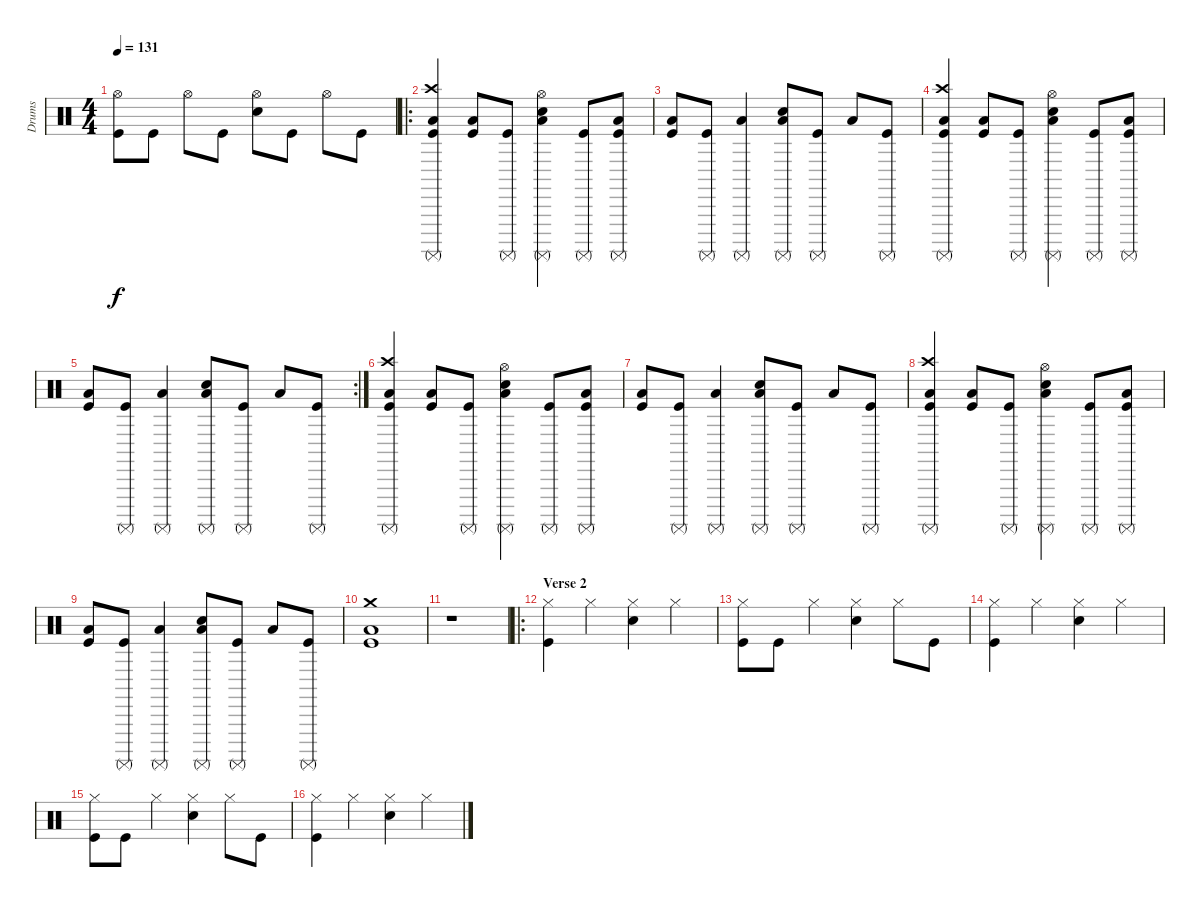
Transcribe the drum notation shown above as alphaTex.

\track ("Drums" "Drums") {instrument percussion}
\staff {score}
\articulation defaults
\ts (4 4)
\tempo 131
\clef neutral
\ks c
("Hi-Hat (open)" "Kick (hit)").8{dy f} "Kick (hit)".8 "Hi-Hat (open)".8 "Kick (hit)".8 ("Hi-Hat (open)" "Snare (hit) 2").8 "Kick (hit)".8 "Hi-Hat (open)".8 "Kick (hit)".8 |
\ro
("Crash high (hit)" "Surdo (mute)" "Low Floor Tom (hit)" "Kick (hit)").4 ("Low Floor Tom (hit)" "Kick (hit)").8 ("Surdo (mute)" "Kick (hit)").8 ("Hi-Hat (open)" "Surdo (mute)" "Low Floor Tom (hit)" "Snare (hit) 2").4 ("Surdo (mute)" "Kick (hit)").8 ("Surdo (mute)" "Low Floor Tom (hit)" "Kick (hit)").8 |
("Low Floor Tom (hit)" "Kick (hit)").8 ("Surdo (mute)" "Kick (hit)").8 ("Surdo (mute)" "Low Floor Tom (hit)").4 ("Surdo (mute)" "Low Floor Tom (hit)" "Snare (hit) 2").8 ("Surdo (mute)" "Kick (hit)").8 "Low Floor Tom (hit)".8 ("Surdo (mute)" "Kick (hit)").8 |
("Crash high (hit)" "Surdo (mute)" "Low Floor Tom (hit)" "Kick (hit)").4 ("Low Floor Tom (hit)" "Kick (hit)").8 ("Surdo (mute)" "Kick (hit)").8 ("Hi-Hat (open)" "Surdo (mute)" "Low Floor Tom (hit)" "Snare (hit) 2").4 ("Surdo (mute)" "Kick (hit)").8 ("Surdo (mute)" "Low Floor Tom (hit)" "Kick (hit)").8 |
\rc 2
("Low Floor Tom (hit)" "Kick (hit)").8 ("Surdo (mute)" "Kick (hit)").8 ("Surdo (mute)" "Low Floor Tom (hit)").4 ("Surdo (mute)" "Low Floor Tom (hit)" "Snare (hit) 2").8 ("Surdo (mute)" "Kick (hit)").8 "Low Floor Tom (hit)".8 ("Surdo (mute)" "Kick (hit)").8 |
("Crash high (hit)" "Surdo (mute)" "Low Floor Tom (hit)" "Kick (hit)").4 ("Low Floor Tom (hit)" "Kick (hit)").8 ("Surdo (mute)" "Kick (hit)").8 ("Hi-Hat (open)" "Surdo (mute)" "Low Floor Tom (hit)" "Snare (hit) 2").4 ("Surdo (mute)" "Kick (hit)").8 ("Surdo (mute)" "Low Floor Tom (hit)" "Kick (hit)").8 |
("Low Floor Tom (hit)" "Kick (hit)").8 ("Surdo (mute)" "Kick (hit)").8 ("Surdo (mute)" "Low Floor Tom (hit)").4 ("Surdo (mute)" "Low Floor Tom (hit)" "Snare (hit) 2").8 ("Surdo (mute)" "Kick (hit)").8 "Low Floor Tom (hit)".8 ("Surdo (mute)" "Kick (hit)").8 |
("Crash high (hit)" "Surdo (mute)" "Low Floor Tom (hit)" "Kick (hit)").4 ("Low Floor Tom (hit)" "Kick (hit)").8 ("Surdo (mute)" "Kick (hit)").8 ("Hi-Hat (open)" "Surdo (mute)" "Low Floor Tom (hit)" "Snare (hit) 2").4 ("Surdo (mute)" "Kick (hit)").8 ("Surdo (mute)" "Low Floor Tom (hit)" "Kick (hit)").8 |
("Low Floor Tom (hit)" "Kick (hit)").8 ("Surdo (mute)" "Kick (hit)").8 ("Surdo (mute)" "Low Floor Tom (hit)").4 ("Surdo (mute)" "Low Floor Tom (hit)" "Snare (hit) 2").8 ("Surdo (mute)" "Kick (hit)").8 "Low Floor Tom (hit)".8 ("Surdo (mute)" "Kick (hit)").8 |
("Crash medium (hit)" "Low Floor Tom (hit)" "Kick (hit)").1 |
r.1 |
\ro
\section ("" "Verse 2")
("Hi-Hat (closed)" "Kick (hit)").4 "Hi-Hat (closed)".4 ("Hi-Hat (closed)" "Snare (hit) 2").4 "Hi-Hat (closed)".4 |
("Hi-Hat (closed)" "Kick (hit)").8 "Kick (hit)".8 "Hi-Hat (closed)".4 ("Hi-Hat (closed)" "Snare (hit) 2").4 "Hi-Hat (closed)".8 "Kick (hit)".8 |
("Hi-Hat (closed)" "Kick (hit)").4 "Hi-Hat (closed)".4 ("Hi-Hat (closed)" "Snare (hit) 2").4 "Hi-Hat (closed)".4 |
("Hi-Hat (closed)" "Kick (hit)").8 "Kick (hit)".8 "Hi-Hat (closed)".4 ("Hi-Hat (closed)" "Snare (hit) 2").4 "Hi-Hat (closed)".8 "Kick (hit)".8 |
("Hi-Hat (closed)" "Kick (hit)").4 "Hi-Hat (closed)".4 ("Hi-Hat (closed)" "Snare (hit) 2").4 "Hi-Hat (closed)".4
